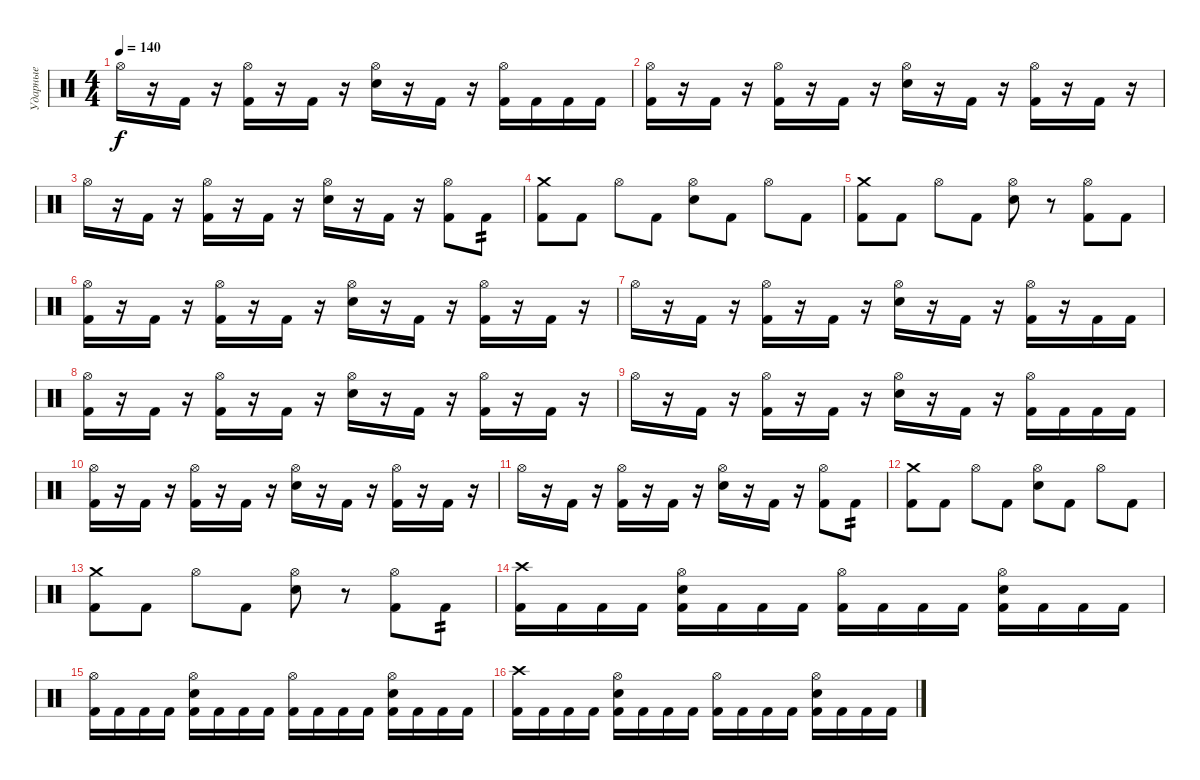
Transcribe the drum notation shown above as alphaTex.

\track ("Ударные" "Ударные") {instrument percussion}
\staff {score}
\articulation defaults
\ts (4 4)
\tempo 140
\clef neutral
\ks c "Hi-Hat (open)".16{dy f}
r.16 "Kick (hit) 2".16 r.16 ("Hi-Hat (open)" "Kick (hit) 2").16 r.16 "Kick (hit) 2".16 r.16 ("Hi-Hat (open)" "Snare (hit) 2").16 r.16 "Kick (hit) 2".16 r.16 ("Hi-Hat (open)" "Kick (hit) 2").16 "Kick (hit) 2".16 "Kick (hit) 2".16 "Kick (hit) 2".16 |
("Kick (hit) 2" "Hi-Hat (open)").16 r.16 "Kick (hit) 2".16 r.16 ("Kick (hit) 2" "Hi-Hat (open)").16 r.16 "Kick (hit) 2".16 r.16 ("Snare (hit) 2" "Hi-Hat (open)").16 r.16 "Kick (hit) 2".16 r.16 ("Kick (hit) 2" "Hi-Hat (open)").16 r.16 "Kick (hit) 2".16 r.16 |
"Hi-Hat (open)".16 r.16 "Kick (hit) 2".16 r.16 ("Hi-Hat (open)" "Kick (hit) 2").16 r.16 "Kick (hit) 2".16 r.16 ("Hi-Hat (open)" "Snare (hit) 2").16 r.16 "Kick (hit) 2".16 r.16 ("Hi-Hat (open)" "Kick (hit) 2").8 "Kick (hit) 2".8{tp 2} |
("Crash medium (hit)" "Kick (hit) 2").8 "Kick (hit) 2".8 "Hi-Hat (open)".8 "Kick (hit) 2".8 ("Hi-Hat (open)" "Snare (hit) 2").8 "Kick (hit) 2".8 "Hi-Hat (open)".8 "Kick (hit) 2".8 |
("Crash medium (hit)" "Kick (hit) 2").8 "Kick (hit) 2".8 "Hi-Hat (open)".8 "Kick (hit) 2".8 ("Hi-Hat (open)" "Snare (hit) 2").8 r.8 ("Hi-Hat (open)" "Kick (hit) 2").8 "Kick (hit) 2".8 |
("Kick (hit) 2" "Hi-Hat (open)").16 r.16 "Kick (hit) 2".16 r.16 ("Kick (hit) 2" "Hi-Hat (open)").16 r.16 "Kick (hit) 2".16 r.16 ("Snare (hit) 2" "Hi-Hat (open)").16 r.16 "Kick (hit) 2".16 r.16 ("Kick (hit) 2" "Hi-Hat (open)").16 r.16 "Kick (hit) 2".16 r.16 |
"Hi-Hat (open)".16 r.16 "Kick (hit) 2".16 r.16 ("Hi-Hat (open)" "Kick (hit) 2").16 r.16 "Kick (hit) 2".16 r.16 ("Hi-Hat (open)" "Snare (hit) 2").16 r.16 "Kick (hit) 2".16 r.16 ("Hi-Hat (open)" "Kick (hit) 2").16 r.16 "Kick (hit) 2".16 "Kick (hit) 2".16 |
("Kick (hit) 2" "Hi-Hat (open)").16 r.16 "Kick (hit) 2".16 r.16 ("Kick (hit) 2" "Hi-Hat (open)").16 r.16 "Kick (hit) 2".16 r.16 ("Snare (hit) 2" "Hi-Hat (open)").16 r.16 "Kick (hit) 2".16 r.16 ("Kick (hit) 2" "Hi-Hat (open)").16 r.16 "Kick (hit) 2".16 r.16 |
"Hi-Hat (open)".16 r.16 "Kick (hit) 2".16 r.16 ("Hi-Hat (open)" "Kick (hit) 2").16 r.16 "Kick (hit) 2".16 r.16 ("Hi-Hat (open)" "Snare (hit) 2").16 r.16 "Kick (hit) 2".16 r.16 ("Hi-Hat (open)" "Kick (hit) 2").16 "Kick (hit) 2".16 "Kick (hit) 2".16 "Kick (hit) 2".16 |
("Kick (hit) 2" "Hi-Hat (open)").16 r.16 "Kick (hit) 2".16 r.16 ("Kick (hit) 2" "Hi-Hat (open)").16 r.16 "Kick (hit) 2".16 r.16 ("Snare (hit) 2" "Hi-Hat (open)").16 r.16 "Kick (hit) 2".16 r.16 ("Kick (hit) 2" "Hi-Hat (open)").16 r.16 "Kick (hit) 2".16 r.16 |
"Hi-Hat (open)".16 r.16 "Kick (hit) 2".16 r.16 ("Hi-Hat (open)" "Kick (hit) 2").16 r.16 "Kick (hit) 2".16 r.16 ("Hi-Hat (open)" "Snare (hit) 2").16 r.16 "Kick (hit) 2".16 r.16 ("Hi-Hat (open)" "Kick (hit) 2").8 "Kick (hit) 2".8{tp 2} |
("Crash medium (hit)" "Kick (hit) 2").8 "Kick (hit) 2".8 "Hi-Hat (open)".8 "Kick (hit) 2".8 ("Hi-Hat (open)" "Snare (hit) 2").8 "Kick (hit) 2".8 "Hi-Hat (open)".8 "Kick (hit) 2".8 |
("Crash medium (hit)" "Kick (hit) 2").8 "Kick (hit) 2".8 "Hi-Hat (open)".8 "Kick (hit) 2".8 ("Hi-Hat (open)" "Snare (hit) 2").8 r.8 ("Hi-Hat (open)" "Kick (hit) 2").8 "Kick (hit) 2".8{tp 2} |
("Crash high (hit)" "Kick (hit) 2").16 "Kick (hit) 2".16 "Kick (hit) 2".16 "Kick (hit) 2".16 ("Hi-Hat (open)" "Kick (hit) 2" "Snare (hit) 2").16 "Kick (hit) 2".16 "Kick (hit) 2".16 "Kick (hit) 2".16 ("Hi-Hat (open)" "Kick (hit) 2").16 "Kick (hit) 2".16 "Kick (hit) 2".16 "Kick (hit) 2".16 ("Hi-Hat (open)" "Kick (hit) 2" "Snare (hit) 2").16 "Kick (hit) 2".16 "Kick (hit) 2".16 "Kick (hit) 2".16 |
("Hi-Hat (open)" "Kick (hit) 2").16 "Kick (hit) 2".16 "Kick (hit) 2".16 "Kick (hit) 2".16 ("Hi-Hat (open)" "Kick (hit) 2" "Snare (hit) 2").16 "Kick (hit) 2".16 "Kick (hit) 2".16 "Kick (hit) 2".16 ("Hi-Hat (open)" "Kick (hit) 2").16 "Kick (hit) 2".16 "Kick (hit) 2".16 "Kick (hit) 2".16 ("Hi-Hat (open)" "Kick (hit) 2" "Snare (hit) 2").16 "Kick (hit) 2".16 "Kick (hit) 2".16 "Kick (hit) 2".16 |
("Crash high (hit)" "Kick (hit) 2").16 "Kick (hit) 2".16 "Kick (hit) 2".16 "Kick (hit) 2".16 ("Hi-Hat (open)" "Kick (hit) 2" "Snare (hit) 2").16 "Kick (hit) 2".16 "Kick (hit) 2".16 "Kick (hit) 2".16 ("Hi-Hat (open)" "Kick (hit) 2").16 "Kick (hit) 2".16 "Kick (hit) 2".16 "Kick (hit) 2".16 ("Hi-Hat (open)" "Kick (hit) 2" "Snare (hit) 2").16 "Kick (hit) 2".16 "Kick (hit) 2".16 "Kick (hit) 2".16
